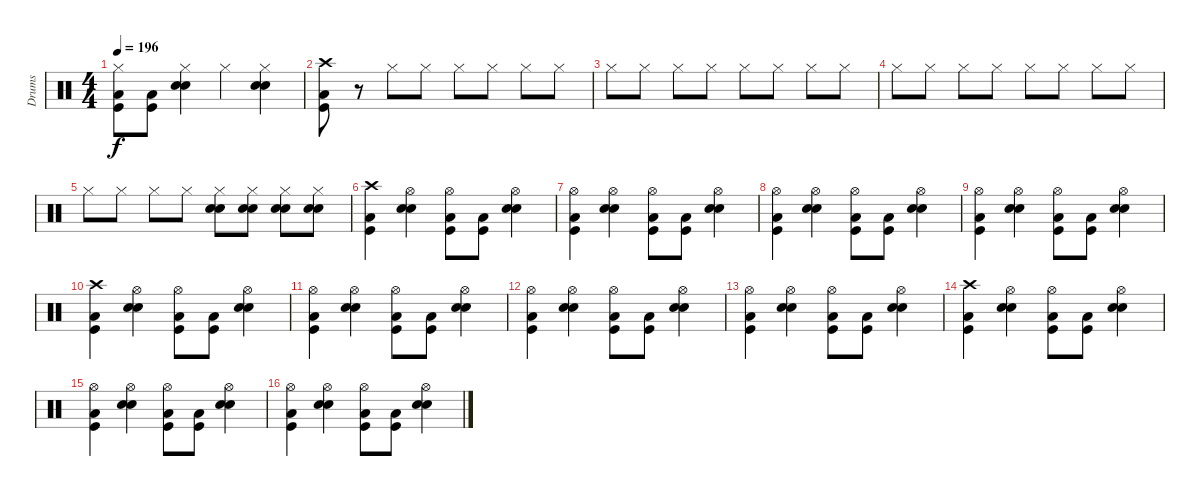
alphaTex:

\track ("Drums" "Drums") {instrument percussion}
\staff {score}
\articulation defaults
\ts (4 4)
\tempo 196
\clef neutral
\ks c
("Hi-Hat (closed)" "Kick (hit)" "Low Tom (hit)").8{dy f} ("Kick (hit)" "Low Tom (hit)").8 ("Hi-Hat (closed)" "Snare (hit) 2" "Electric Snare (hit)").4 "Hi-Hat (closed)".4 ("Hi-Hat (closed)" "Snare (hit) 2" "Electric Snare (hit)").4 |
("Crash high (hit)" "Kick (hit)" "Low Tom (hit)").8 r.8 "Hi-Hat (closed)".8 "Hi-Hat (closed)".8 "Hi-Hat (closed)".8 "Hi-Hat (closed)".8 "Hi-Hat (closed)".8 "Hi-Hat (closed)".8 |
"Hi-Hat (closed)".8 "Hi-Hat (closed)".8 "Hi-Hat (closed)".8 "Hi-Hat (closed)".8 "Hi-Hat (closed)".8 "Hi-Hat (closed)".8 "Hi-Hat (closed)".8 "Hi-Hat (closed)".8 |
"Hi-Hat (closed)".8 "Hi-Hat (closed)".8 "Hi-Hat (closed)".8 "Hi-Hat (closed)".8 "Hi-Hat (closed)".8 "Hi-Hat (closed)".8 "Hi-Hat (closed)".8 "Hi-Hat (closed)".8 |
"Hi-Hat (closed)".8 "Hi-Hat (closed)".8 "Hi-Hat (closed)".8 "Hi-Hat (closed)".8 ("Hi-Hat (closed)" "Snare (hit) 2" "Electric Snare (hit)").8 ("Hi-Hat (closed)" "Snare (hit) 2" "Electric Snare (hit)").8 ("Hi-Hat (closed)" "Snare (hit) 2" "Electric Snare (hit)").8 ("Hi-Hat (closed)" "Snare (hit) 2" "Electric Snare (hit)").8 |
("Crash high (hit)" "Kick (hit)" "Low Tom (hit)").4 ("Hi-Hat (open)" "Snare (hit) 2" "Electric Snare (hit)").4 ("Hi-Hat (open)" "Kick (hit)" "Low Tom (hit)").8 ("Kick (hit)" "Low Tom (hit)").8 ("Hi-Hat (open)" "Snare (hit) 2" "Electric Snare (hit)").4 |
("Hi-Hat (open)" "Kick (hit)" "Low Tom (hit)").4 ("Hi-Hat (open)" "Snare (hit) 2" "Electric Snare (hit)").4 ("Hi-Hat (open)" "Kick (hit)" "Low Tom (hit)").8 ("Kick (hit)" "Low Tom (hit)").8 ("Hi-Hat (open)" "Snare (hit) 2" "Electric Snare (hit)").4 |
("Hi-Hat (open)" "Kick (hit)" "Low Tom (hit)").4 ("Hi-Hat (open)" "Snare (hit) 2" "Electric Snare (hit)").4 ("Hi-Hat (open)" "Kick (hit)" "Low Tom (hit)").8 ("Kick (hit)" "Low Tom (hit)").8 ("Hi-Hat (open)" "Snare (hit) 2" "Electric Snare (hit)").4 |
("Hi-Hat (open)" "Kick (hit)" "Low Tom (hit)").4 ("Hi-Hat (open)" "Snare (hit) 2" "Electric Snare (hit)").4 ("Hi-Hat (open)" "Kick (hit)" "Low Tom (hit)").8 ("Kick (hit)" "Low Tom (hit)").8 ("Hi-Hat (open)" "Snare (hit) 2" "Electric Snare (hit)").4 |
("Crash high (hit)" "Kick (hit)" "Low Tom (hit)").4 ("Hi-Hat (open)" "Snare (hit) 2" "Electric Snare (hit)").4 ("Hi-Hat (open)" "Kick (hit)" "Low Tom (hit)").8 ("Kick (hit)" "Low Tom (hit)").8 ("Hi-Hat (open)" "Snare (hit) 2" "Electric Snare (hit)").4 |
("Hi-Hat (open)" "Kick (hit)" "Low Tom (hit)").4 ("Hi-Hat (open)" "Snare (hit) 2" "Electric Snare (hit)").4 ("Hi-Hat (open)" "Kick (hit)" "Low Tom (hit)").8 ("Kick (hit)" "Low Tom (hit)").8 ("Hi-Hat (open)" "Snare (hit) 2" "Electric Snare (hit)").4 |
("Hi-Hat (open)" "Kick (hit)" "Low Tom (hit)").4 ("Hi-Hat (open)" "Snare (hit) 2" "Electric Snare (hit)").4 ("Hi-Hat (open)" "Kick (hit)" "Low Tom (hit)").8 ("Kick (hit)" "Low Tom (hit)").8 ("Hi-Hat (open)" "Snare (hit) 2" "Electric Snare (hit)").4 |
("Hi-Hat (open)" "Kick (hit)" "Low Tom (hit)").4 ("Hi-Hat (open)" "Snare (hit) 2" "Electric Snare (hit)").4 ("Hi-Hat (open)" "Kick (hit)" "Low Tom (hit)").8 ("Kick (hit)" "Low Tom (hit)").8 ("Hi-Hat (open)" "Snare (hit) 2" "Electric Snare (hit)").4 |
("Crash high (hit)" "Kick (hit)" "Low Tom (hit)").4 ("Hi-Hat (open)" "Snare (hit) 2" "Electric Snare (hit)").4 ("Hi-Hat (open)" "Kick (hit)" "Low Tom (hit)").8 ("Kick (hit)" "Low Tom (hit)").8 ("Hi-Hat (open)" "Snare (hit) 2" "Electric Snare (hit)").4 |
("Hi-Hat (open)" "Kick (hit)" "Low Tom (hit)").4 ("Hi-Hat (open)" "Snare (hit) 2" "Electric Snare (hit)").4 ("Hi-Hat (open)" "Kick (hit)" "Low Tom (hit)").8 ("Kick (hit)" "Low Tom (hit)").8 ("Hi-Hat (open)" "Snare (hit) 2" "Electric Snare (hit)").4 |
("Hi-Hat (open)" "Kick (hit)" "Low Tom (hit)").4 ("Hi-Hat (open)" "Snare (hit) 2" "Electric Snare (hit)").4 ("Hi-Hat (open)" "Kick (hit)" "Low Tom (hit)").8 ("Kick (hit)" "Low Tom (hit)").8 ("Hi-Hat (open)" "Snare (hit) 2" "Electric Snare (hit)").4
